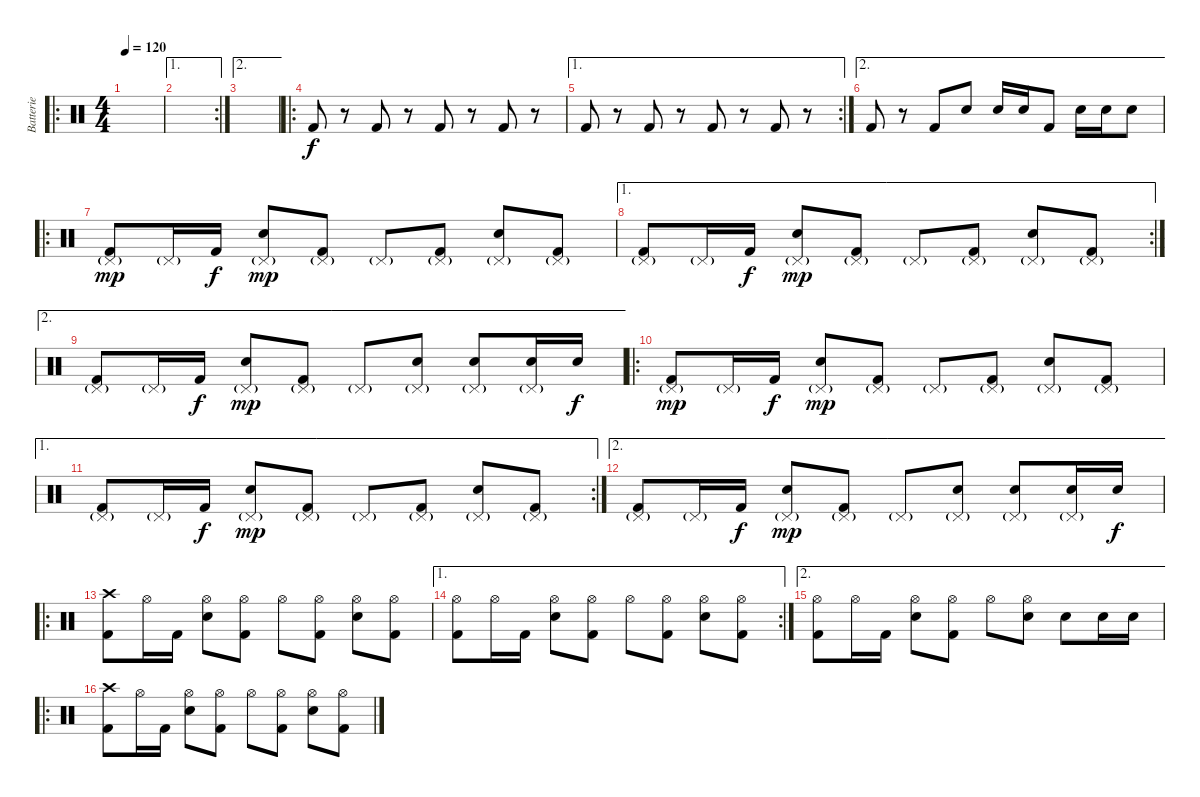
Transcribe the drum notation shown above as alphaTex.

\track ("Batterie" "Batterie") {instrument percussion}
\staff {score}
\articulation defaults
\ro
\ts (4 4)
\tempo 120
\clef neutral
\ks c
|
\ae 1
\rc 2
|
\ae 2
|
\ro "Kick (hit) 2".8
r.8 "Kick (hit) 2".8 r.8 "Kick (hit) 2".8 r.8 "Kick (hit) 2".8 r.8 |
\ae 1
\rc 2 "Kick (hit) 2".8
r.8 "Kick (hit) 2".8 r.8 "Kick (hit) 2".8 r.8 "Kick (hit) 2".8 r.8 |
\ae 2 "Kick (hit) 2".8
r.8 "Kick (hit) 2".8 "Snare (hit) 2".8 "Snare (hit) 2".16 "Snare (hit) 2".16 "Kick (hit) 2".8 "Snare (hit) 2".16 "Snare (hit) 2".16 "Snare (hit) 2".8 |
\ro
("Pedal Hi-Hat (hit)"{g} "Kick (hit) 2").8{dy mp} "Pedal Hi-Hat (hit)"{g}.16 "Kick (hit) 2".16{dy f} ("Pedal Hi-Hat (hit)"{g} "Snare (hit) 2").8{dy mp} ("Pedal Hi-Hat (hit)"{g} "Kick (hit) 2").8 "Pedal Hi-Hat (hit)"{g}.8 ("Pedal Hi-Hat (hit)"{g} "Kick (hit) 2").8 ("Pedal Hi-Hat (hit)"{g} "Snare (hit) 2").8 ("Pedal Hi-Hat (hit)"{g} "Kick (hit) 2").8 |
\ae 1
\rc 2
("Pedal Hi-Hat (hit)"{g} "Kick (hit) 2").8 "Pedal Hi-Hat (hit)"{g}.16 "Kick (hit) 2".16{dy f} ("Pedal Hi-Hat (hit)"{g} "Snare (hit) 2").8{dy mp} ("Pedal Hi-Hat (hit)"{g} "Kick (hit) 2").8 "Pedal Hi-Hat (hit)"{g}.8 ("Pedal Hi-Hat (hit)"{g} "Kick (hit) 2").8 ("Pedal Hi-Hat (hit)"{g} "Snare (hit) 2").8 ("Pedal Hi-Hat (hit)"{g} "Kick (hit) 2").8 |
\ae 2
("Pedal Hi-Hat (hit)"{g} "Kick (hit) 2").8 "Pedal Hi-Hat (hit)"{g}.16 "Kick (hit) 2".16{dy f} ("Pedal Hi-Hat (hit)"{g} "Snare (hit) 2").8{dy mp} ("Pedal Hi-Hat (hit)"{g} "Kick (hit) 2").8 "Pedal Hi-Hat (hit)"{g}.8 ("Pedal Hi-Hat (hit)"{g} "Snare (hit) 2").8 ("Pedal Hi-Hat (hit)"{g} "Snare (hit) 2").8 ("Pedal Hi-Hat (hit)"{g} "Snare (hit) 2").16 "Snare (hit) 2".16{dy f} |
\ro
("Pedal Hi-Hat (hit)"{g} "Kick (hit) 2").8{dy mp} "Pedal Hi-Hat (hit)"{g}.16 "Kick (hit) 2".16{dy f} ("Pedal Hi-Hat (hit)"{g} "Snare (hit) 2").8{dy mp} ("Pedal Hi-Hat (hit)"{g} "Kick (hit) 2").8 "Pedal Hi-Hat (hit)"{g}.8 ("Pedal Hi-Hat (hit)"{g} "Kick (hit) 2").8 ("Pedal Hi-Hat (hit)"{g} "Snare (hit) 2").8 ("Pedal Hi-Hat (hit)"{g} "Kick (hit) 2").8 |
\ae 1
\rc 2
("Pedal Hi-Hat (hit)"{g} "Kick (hit) 2").8 "Pedal Hi-Hat (hit)"{g}.16 "Kick (hit) 2".16{dy f} ("Pedal Hi-Hat (hit)"{g} "Snare (hit) 2").8{dy mp} ("Pedal Hi-Hat (hit)"{g} "Kick (hit) 2").8 "Pedal Hi-Hat (hit)"{g}.8 ("Pedal Hi-Hat (hit)"{g} "Kick (hit) 2").8 ("Pedal Hi-Hat (hit)"{g} "Snare (hit) 2").8 ("Pedal Hi-Hat (hit)"{g} "Kick (hit) 2").8 |
\ae 2
("Pedal Hi-Hat (hit)"{g} "Kick (hit) 2").8 "Pedal Hi-Hat (hit)"{g}.16 "Kick (hit) 2".16{dy f} ("Pedal Hi-Hat (hit)"{g} "Snare (hit) 2").8{dy mp} ("Pedal Hi-Hat (hit)"{g} "Kick (hit) 2").8 "Pedal Hi-Hat (hit)"{g}.8 ("Pedal Hi-Hat (hit)"{g} "Snare (hit) 2").8 ("Pedal Hi-Hat (hit)"{g} "Snare (hit) 2").8 ("Pedal Hi-Hat (hit)"{g} "Snare (hit) 2").16 "Snare (hit) 2".16{dy f} |
\ro
("Crash high (hit)" "Kick (hit) 2").8 "Hi-Hat (open)".16 "Kick (hit) 2".16 ("Hi-Hat (open)" "Snare (hit) 2").8 ("Hi-Hat (open)" "Kick (hit) 2").8 "Hi-Hat (open)".8 ("Hi-Hat (open)" "Kick (hit) 2").8 ("Hi-Hat (open)" "Snare (hit) 2").8 ("Hi-Hat (open)" "Kick (hit) 2").8 |
\ae 1
\rc 2
("Hi-Hat (open)" "Kick (hit) 2").8 "Hi-Hat (open)".16 "Kick (hit) 2".16 ("Hi-Hat (open)" "Snare (hit) 2").8 ("Hi-Hat (open)" "Kick (hit) 2").8 "Hi-Hat (open)".8 ("Hi-Hat (open)" "Kick (hit) 2").8 ("Hi-Hat (open)" "Snare (hit) 2").8 ("Hi-Hat (open)" "Kick (hit) 2").8 |
\ae 2
("Hi-Hat (open)" "Kick (hit) 2").8 "Hi-Hat (open)".16 "Kick (hit) 2".16 ("Hi-Hat (open)" "Snare (hit) 2").8 ("Hi-Hat (open)" "Kick (hit) 2").8 "Hi-Hat (open)".8 ("Hi-Hat (open)" "Snare (hit) 2").8 "Snare (hit) 2".8 "Snare (hit) 2".16 "Snare (hit) 2".16 |
\ro
("Crash high (hit)" "Kick (hit) 2").8 "Hi-Hat (open)".16 "Kick (hit) 2".16 ("Hi-Hat (open)" "Snare (hit) 2").8 ("Hi-Hat (open)" "Kick (hit) 2").8 "Hi-Hat (open)".8 ("Hi-Hat (open)" "Kick (hit) 2").8 ("Hi-Hat (open)" "Snare (hit) 2").8 ("Hi-Hat (open)" "Kick (hit) 2").8
